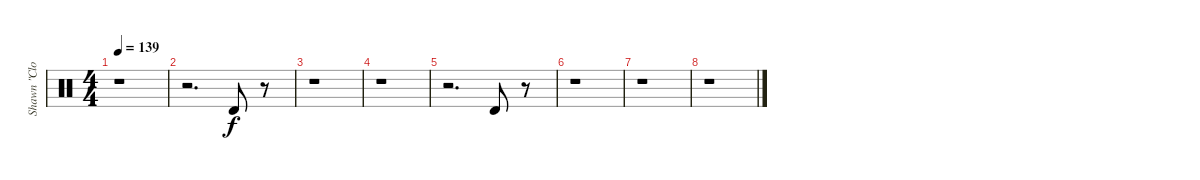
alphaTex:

\track ("Shawn \"Clown\" Crahan & Chris Fehn" "Shawn \"Clo") {instrument percussion}
\staff {score}
\articulation defaults
\ts (4 4)
\tempo 139
\clef neutral
\ks c
r.1{dy f} |
r.2{d} "Timbale high (hit)".8 r.8 |
r.1 |
r.1 |
r.2{d} "Timbale high (hit)".8 r.8 |
r.1 |
r.1 |
r.1
